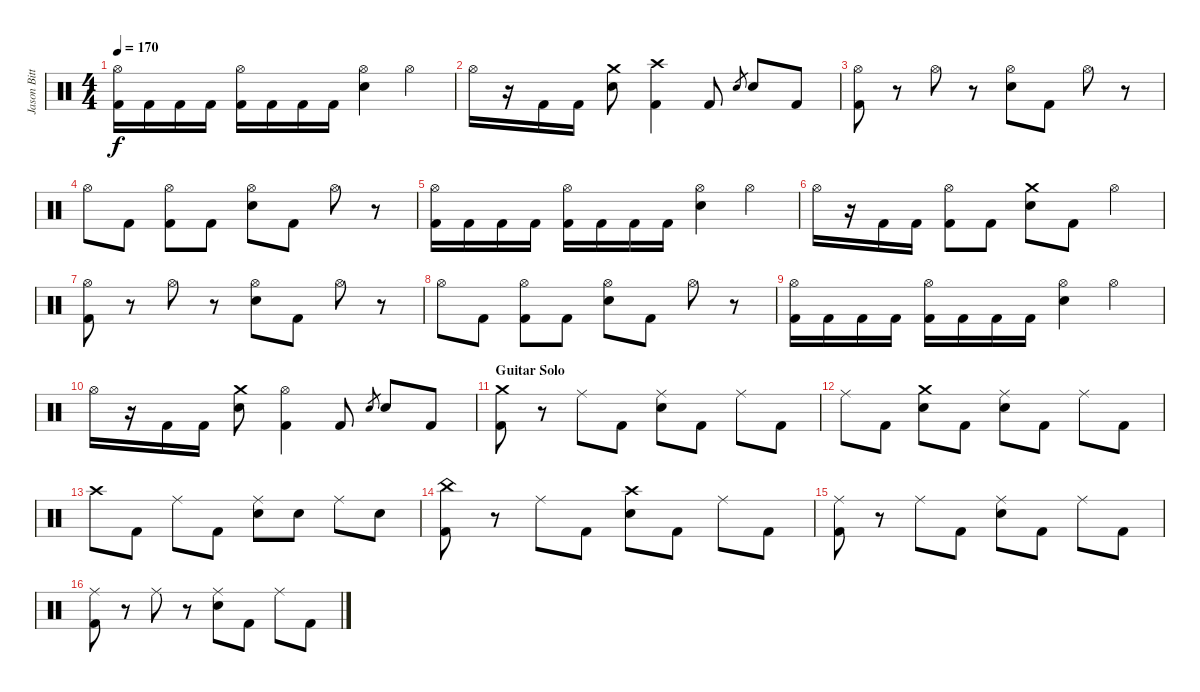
\track ("Jason Bittner" "Jason Bitt") {instrument percussion}
\staff {score}
\articulation defaults
\ts (4 4)
\tempo 170
\clef neutral
\ks c
("Hi-Hat (open)" "Kick (hit) 2").16{dy f} "Kick (hit) 2".16 "Kick (hit) 2".16 "Kick (hit) 2".16 ("Hi-Hat (open)" "Kick (hit) 2").16 "Kick (hit) 2".16 "Kick (hit) 2".16 "Kick (hit) 2".16 ("Hi-Hat (open)" "Electric Snare (hit)").4 "Hi-Hat (open)".4 |
"Hi-Hat (open)".16 r.16 "Kick (hit) 2".16 "Kick (hit) 2".16 ("Crash medium (hit)" "Electric Snare (hit)").8 ("Crash high (hit)" "Kick (hit) 2").4 "Kick (hit) 2".8 "Electric Snare (hit)".8{gr} "Electric Snare (hit)".8 "Kick (hit) 2".8 |
("Hi-Hat (open)" "Kick (hit) 2").8 r.8 "Hi-Hat (open)".8 r.8 ("Hi-Hat (open)" "Electric Snare (hit)").8 "Kick (hit) 2".8 "Hi-Hat (open)".8 r.8 |
"Hi-Hat (open)".8 "Kick (hit) 2".8 ("Hi-Hat (open)" "Kick (hit) 2").8 "Kick (hit) 2".8 ("Hi-Hat (open)" "Electric Snare (hit)").8 "Kick (hit) 2".8 "Hi-Hat (open)".8 r.8 |
("Hi-Hat (open)" "Kick (hit) 2").16 "Kick (hit) 2".16 "Kick (hit) 2".16 "Kick (hit) 2".16 ("Hi-Hat (open)" "Kick (hit) 2").16 "Kick (hit) 2".16 "Kick (hit) 2".16 "Kick (hit) 2".16 ("Hi-Hat (open)" "Electric Snare (hit)").4 "Hi-Hat (open)".4 |
"Hi-Hat (open)".16 r.16 "Kick (hit) 2".16 "Kick (hit) 2".16 ("Hi-Hat (open)" "Kick (hit) 2").8 "Kick (hit) 2".8 ("Crash medium (hit)" "Electric Snare (hit)").8 "Kick (hit) 2".8 "Hi-Hat (open)".4 |
("Hi-Hat (open)" "Kick (hit) 2").8 r.8 "Hi-Hat (open)".8 r.8 ("Hi-Hat (open)" "Electric Snare (hit)").8 "Kick (hit) 2".8 "Hi-Hat (open)".8 r.8 |
"Hi-Hat (open)".8 "Kick (hit) 2".8 ("Hi-Hat (open)" "Kick (hit) 2").8 "Kick (hit) 2".8 ("Hi-Hat (open)" "Electric Snare (hit)").8 "Kick (hit) 2".8 "Hi-Hat (open)".8 r.8 |
("Hi-Hat (open)" "Kick (hit) 2").16 "Kick (hit) 2".16 "Kick (hit) 2".16 "Kick (hit) 2".16 ("Hi-Hat (open)" "Kick (hit) 2").16 "Kick (hit) 2".16 "Kick (hit) 2".16 "Kick (hit) 2".16 ("Hi-Hat (open)" "Electric Snare (hit)").4 "Hi-Hat (open)".4 |
"Hi-Hat (open)".16 r.16 "Kick (hit) 2".16 "Kick (hit) 2".16 ("Crash medium (hit)" "Electric Snare (hit)").8 ("Hi-Hat (open)" "Kick (hit) 2").4 "Kick (hit) 2".8 "Electric Snare (hit)".8{gr} "Electric Snare (hit)".8 "Kick (hit) 2".8 |
\section ("" "Guitar Solo")
("Crash medium (hit)" "Kick (hit) 2").8 r.8 "Ride (middle)".8 "Kick (hit) 2".8 ("Ride (middle)" "Electric Snare (hit)").8 "Kick (hit) 2".8 "Ride (middle)".8 "Kick (hit) 2".8 |
"Ride (middle)".8 "Kick (hit) 2".8 ("Crash medium (hit)" "Electric Snare (hit)").8 "Kick (hit) 2".8 ("Ride (middle)" "Electric Snare (hit)").8 "Kick (hit) 2".8 "Ride (middle)".8 "Kick (hit) 2".8 |
"Crash high (hit)".8 "Kick (hit) 2".8 "Ride (middle)".8 "Kick (hit) 2".8 ("Ride (middle)" "Electric Snare (hit)").8 "Electric Snare (hit)".8 "Ride (middle)".8 "Electric Snare (hit)".8 |
("China (hit)" "Kick (hit) 2").8 r.8 "Ride (middle)".8 "Kick (hit) 2".8 ("Crash high (hit)" "Electric Snare (hit)").8 "Kick (hit) 2".8 "Ride (middle)".8 "Kick (hit) 2".8 |
("Ride (middle)" "Kick (hit) 2").8 r.8 "Ride (middle)".8 "Kick (hit) 2".8 ("Ride (middle)" "Electric Snare (hit)").8 "Kick (hit) 2".8 "Ride (middle)".8 "Kick (hit) 2".8 |
("Ride (middle)" "Kick (hit) 2").8 r.8 "Ride (middle)".8 r.8 ("Ride (middle)" "Electric Snare (hit)").8 "Kick (hit) 2".8 "Ride (middle)".8 "Kick (hit) 2".8
